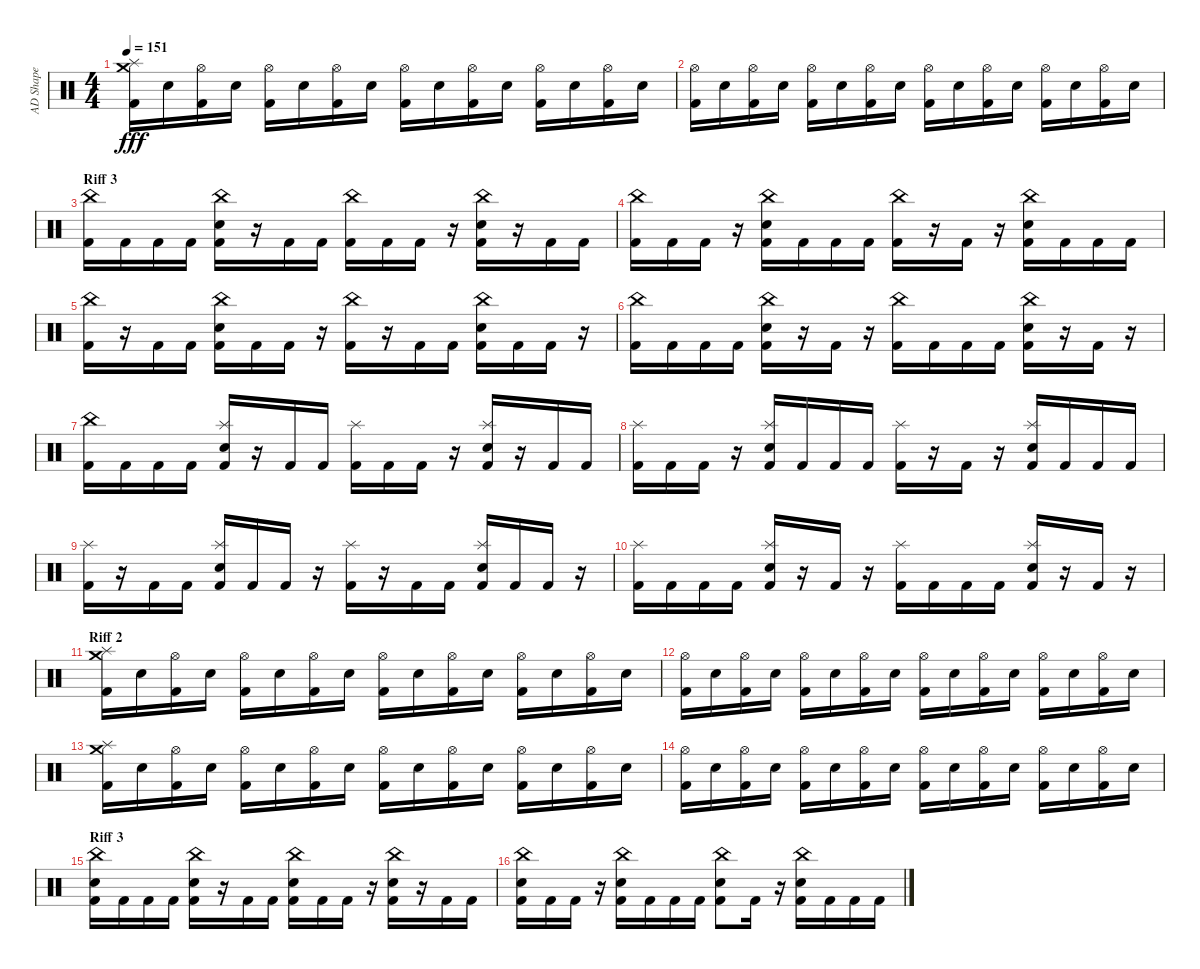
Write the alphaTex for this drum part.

\track ("AD Shape" "AD Shape") {instrument percussion}
\staff {score}
\articulation defaults
\ts (4 4)
\tempo 151
\clef neutral
\ks c
("Kick (hit) 2" "Splash (hit)" "Crash medium (hit)").16{dy fff} "Snare (hit) 2".16 ("Kick (hit) 2" "Hi-Hat (open)").16 "Snare (hit) 2".16 ("Kick (hit) 2" "Hi-Hat (open)").16 "Snare (hit) 2".16 ("Kick (hit) 2" "Hi-Hat (open)").16 "Snare (hit) 2".16 ("Kick (hit) 2" "Hi-Hat (open)").16 "Snare (hit) 2".16 ("Kick (hit) 2" "Hi-Hat (open)").16 "Snare (hit) 2".16 ("Kick (hit) 2" "Hi-Hat (open)").16 "Snare (hit) 2".16 ("Kick (hit) 2" "Hi-Hat (open)").16 "Snare (hit) 2".16 |
("Kick (hit) 2" "Hi-Hat (open)").16 "Snare (hit) 2".16 ("Kick (hit) 2" "Hi-Hat (open)").16 "Snare (hit) 2".16 ("Kick (hit) 2" "Hi-Hat (open)").16 "Snare (hit) 2".16 ("Kick (hit) 2" "Hi-Hat (open)").16 "Snare (hit) 2".16 ("Kick (hit) 2" "Hi-Hat (open)").16 "Snare (hit) 2".16 ("Kick (hit) 2" "Hi-Hat (open)").16 "Snare (hit) 2".16 ("Kick (hit) 2" "Hi-Hat (open)").16 "Snare (hit) 2".16 ("Kick (hit) 2" "Hi-Hat (open)").16 "Snare (hit) 2".16 |
\section ("" "Riff 3")
("Kick (hit) 2" "China (hit)").16 "Kick (hit) 2".16 "Kick (hit) 2".16 "Kick (hit) 2".16 ("Kick (hit) 2" "Snare (hit) 2" "China (hit)").16 r.16 "Kick (hit) 2".16 "Kick (hit) 2".16 ("Kick (hit) 2" "China (hit)").16 "Kick (hit) 2".16 "Kick (hit) 2".16 r.16 ("Kick (hit) 2" "Snare (hit) 2" "China (hit)").16 r.16 "Kick (hit) 2".16 "Kick (hit) 2".16 |
("Kick (hit) 2" "China (hit)").16 "Kick (hit) 2".16 "Kick (hit) 2".16 r.16 ("Kick (hit) 2" "Snare (hit) 2" "China (hit)").16 "Kick (hit) 2".16 "Kick (hit) 2".16 "Kick (hit) 2".16 ("Kick (hit) 2" "China (hit)").16 r.16 "Kick (hit) 2".16 r.16 ("Kick (hit) 2" "Snare (hit) 2" "China (hit)").16 "Kick (hit) 2".16 "Kick (hit) 2".16 "Kick (hit) 2".16 |
("Kick (hit) 2" "China (hit)").16 r.16 "Kick (hit) 2".16 "Kick (hit) 2".16 ("Kick (hit) 2" "Snare (hit) 2" "China (hit)").16 "Kick (hit) 2".16 "Kick (hit) 2".16 r.16 ("Kick (hit) 2" "China (hit)").16 r.16 "Kick (hit) 2".16 "Kick (hit) 2".16 ("Kick (hit) 2" "Snare (hit) 2" "China (hit)").16 "Kick (hit) 2".16 "Kick (hit) 2".16 r.16 |
("Kick (hit) 2" "China (hit)").16 "Kick (hit) 2".16 "Kick (hit) 2".16 "Kick (hit) 2".16 ("Kick (hit) 2" "Snare (hit) 2" "China (hit)").16 r.16 "Kick (hit) 2".16 r.16 ("Kick (hit) 2" "China (hit)").16 "Kick (hit) 2".16 "Kick (hit) 2".16 "Kick (hit) 2".16 ("Kick (hit) 2" "Snare (hit) 2" "China (hit)").16 r.16 "Kick (hit) 2".16 r.16 |
("Kick (hit) 2" "China (hit)").16 "Kick (hit) 2".16 "Kick (hit) 2".16 "Kick (hit) 2".16 ("Kick (hit) 2" "Snare (hit) 2" "Splash (hit)").16 r.16 "Kick (hit) 2".16 "Kick (hit) 2".16 ("Kick (hit) 2" "Splash (hit)").16 "Kick (hit) 2".16 "Kick (hit) 2".16 r.16 ("Kick (hit) 2" "Snare (hit) 2" "Splash (hit)").16 r.16 "Kick (hit) 2".16 "Kick (hit) 2".16 |
("Kick (hit) 2" "Splash (hit)").16 "Kick (hit) 2".16 "Kick (hit) 2".16 r.16 ("Kick (hit) 2" "Snare (hit) 2" "Splash (hit)").16 "Kick (hit) 2".16 "Kick (hit) 2".16 "Kick (hit) 2".16 ("Kick (hit) 2" "Splash (hit)").16 r.16 "Kick (hit) 2".16 r.16 ("Kick (hit) 2" "Snare (hit) 2" "Splash (hit)").16 "Kick (hit) 2".16 "Kick (hit) 2".16 "Kick (hit) 2".16 |
("Kick (hit) 2" "Splash (hit)").16 r.16 "Kick (hit) 2".16 "Kick (hit) 2".16 ("Kick (hit) 2" "Snare (hit) 2" "Splash (hit)").16 "Kick (hit) 2".16 "Kick (hit) 2".16 r.16 ("Kick (hit) 2" "Splash (hit)").16 r.16 "Kick (hit) 2".16 "Kick (hit) 2".16 ("Kick (hit) 2" "Snare (hit) 2" "Splash (hit)").16 "Kick (hit) 2".16 "Kick (hit) 2".16 r.16 |
("Kick (hit) 2" "Splash (hit)").16 "Kick (hit) 2".16 "Kick (hit) 2".16 "Kick (hit) 2".16 ("Kick (hit) 2" "Snare (hit) 2" "Splash (hit)").16 r.16 "Kick (hit) 2".16 r.16 ("Kick (hit) 2" "Splash (hit)").16 "Kick (hit) 2".16 "Kick (hit) 2".16 "Kick (hit) 2".16 ("Kick (hit) 2" "Snare (hit) 2" "Splash (hit)").16 r.16 "Kick (hit) 2".16 r.16 |
\section ("" "Riff 2")
("Kick (hit) 2" "Splash (hit)" "Crash medium (hit)").16 "Snare (hit) 2".16 ("Kick (hit) 2" "Hi-Hat (open)").16 "Snare (hit) 2".16 ("Kick (hit) 2" "Hi-Hat (open)").16 "Snare (hit) 2".16 ("Kick (hit) 2" "Hi-Hat (open)").16 "Snare (hit) 2".16 ("Kick (hit) 2" "Hi-Hat (open)").16 "Snare (hit) 2".16 ("Kick (hit) 2" "Hi-Hat (open)").16 "Snare (hit) 2".16 ("Kick (hit) 2" "Hi-Hat (open)").16 "Snare (hit) 2".16 ("Kick (hit) 2" "Hi-Hat (open)").16 "Snare (hit) 2".16 |
("Kick (hit) 2" "Hi-Hat (open)").16 "Snare (hit) 2".16 ("Kick (hit) 2" "Hi-Hat (open)").16 "Snare (hit) 2".16 ("Kick (hit) 2" "Hi-Hat (open)").16 "Snare (hit) 2".16 ("Kick (hit) 2" "Hi-Hat (open)").16 "Snare (hit) 2".16 ("Kick (hit) 2" "Hi-Hat (open)").16 "Snare (hit) 2".16 ("Kick (hit) 2" "Hi-Hat (open)").16 "Snare (hit) 2".16 ("Kick (hit) 2" "Hi-Hat (open)").16 "Snare (hit) 2".16 ("Kick (hit) 2" "Hi-Hat (open)").16 "Snare (hit) 2".16 |
("Kick (hit) 2" "Splash (hit)" "Crash medium (hit)").16 "Snare (hit) 2".16 ("Kick (hit) 2" "Hi-Hat (open)").16 "Snare (hit) 2".16 ("Kick (hit) 2" "Hi-Hat (open)").16 "Snare (hit) 2".16 ("Kick (hit) 2" "Hi-Hat (open)").16 "Snare (hit) 2".16 ("Kick (hit) 2" "Hi-Hat (open)").16 "Snare (hit) 2".16 ("Kick (hit) 2" "Hi-Hat (open)").16 "Snare (hit) 2".16 ("Kick (hit) 2" "Hi-Hat (open)").16 "Snare (hit) 2".16 ("Kick (hit) 2" "Hi-Hat (open)").16 "Snare (hit) 2".16 |
("Kick (hit) 2" "Hi-Hat (open)").16 "Snare (hit) 2".16 ("Kick (hit) 2" "Hi-Hat (open)").16 "Snare (hit) 2".16 ("Kick (hit) 2" "Hi-Hat (open)").16 "Snare (hit) 2".16 ("Kick (hit) 2" "Hi-Hat (open)").16 "Snare (hit) 2".16 ("Kick (hit) 2" "Hi-Hat (open)").16 "Snare (hit) 2".16 ("Kick (hit) 2" "Hi-Hat (open)").16 "Snare (hit) 2".16 ("Kick (hit) 2" "Hi-Hat (open)").16 "Snare (hit) 2".16 ("Kick (hit) 2" "Hi-Hat (open)").16 "Snare (hit) 2".16 |
\section ("" "Riff 3")
("Kick (hit) 2" "Snare (hit) 2" "China (hit)").16 "Kick (hit) 2".16 "Kick (hit) 2".16 "Kick (hit) 2".16 ("Kick (hit) 2" "Snare (hit) 2" "China (hit)").16 r.16 "Kick (hit) 2".16 "Kick (hit) 2".16 ("Kick (hit) 2" "Snare (hit) 2" "China (hit)").16 "Kick (hit) 2".16 "Kick (hit) 2".16 r.16 ("Kick (hit) 2" "Snare (hit) 2" "China (hit)").16 r.16 "Kick (hit) 2".16 "Kick (hit) 2".16 |
("Kick (hit) 2" "Snare (hit) 2" "China (hit)").16 "Kick (hit) 2".16 "Kick (hit) 2".16 r.16 ("Kick (hit) 2" "Snare (hit) 2" "China (hit)").16 "Kick (hit) 2".16 "Kick (hit) 2".16 "Kick (hit) 2".16 ("Kick (hit) 2" "Snare (hit) 2" "China (hit)").8 "Kick (hit) 2".16 r.16 ("Kick (hit) 2" "Snare (hit) 2" "China (hit)").16 "Kick (hit) 2".16 "Kick (hit) 2".16 "Kick (hit) 2".16
